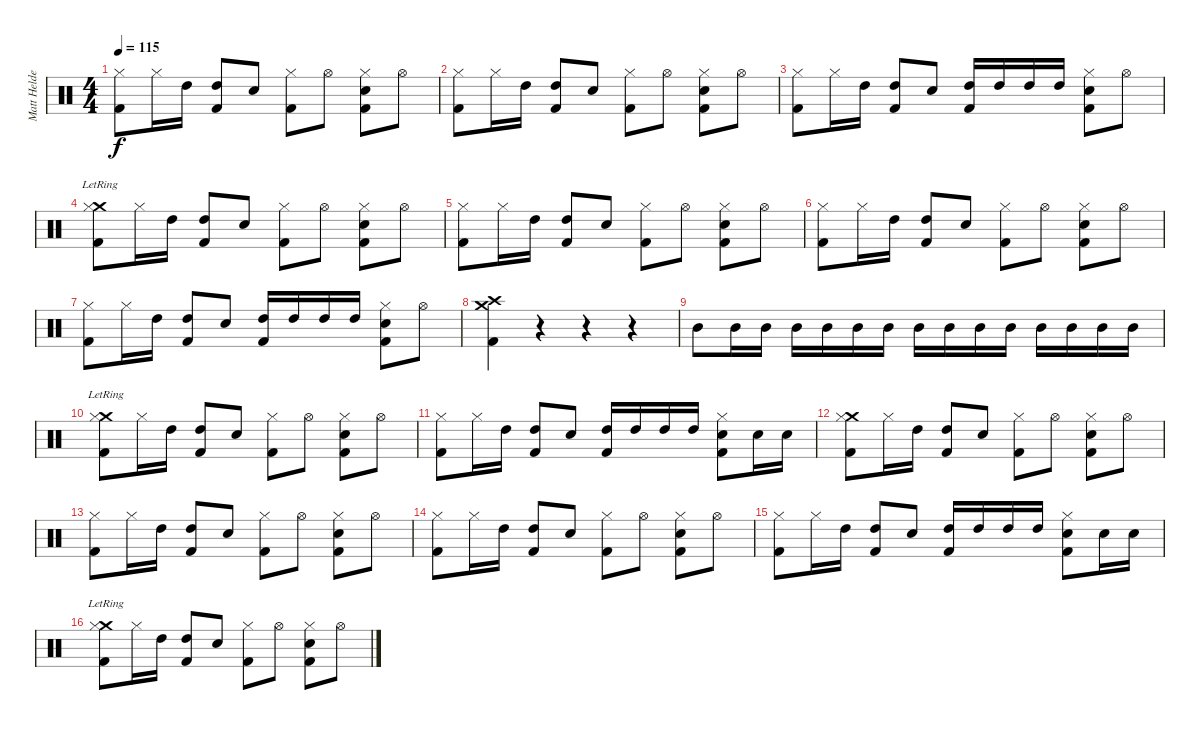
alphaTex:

\track ("Matt Helders (Percussion)" "Matt Helde") {instrument percussion}
\staff {score}
\articulation defaults
\ts (4 4)
\tempo 115
\clef neutral
\ks c
("Hi-Hat (closed)" "Kick (hit) 2").8{dy f} "Hi-Hat (closed)".16 "High Tom (hit)".16 ("High Tom (hit)" "Kick (hit) 2").8 "Snare (hit) 2".8 ("Hi-Hat (closed)" "Kick (hit) 2").8 "Hi-Hat (open)".8 ("Hi-Hat (closed)" "Snare (hit) 2" "Kick (hit) 2").8 "Hi-Hat (open)".8 |
("Hi-Hat (closed)" "Kick (hit) 2").8 "Hi-Hat (closed)".16 "High Tom (hit)".16 ("High Tom (hit)" "Kick (hit) 2").8 "Snare (hit) 2".8 ("Hi-Hat (closed)" "Kick (hit) 2").8 "Hi-Hat (open)".8 ("Hi-Hat (closed)" "Snare (hit) 2" "Kick (hit) 2").8 "Hi-Hat (open)".8 |
("Hi-Hat (closed)" "Kick (hit) 2").8 "Hi-Hat (closed)".16 "High Tom (hit)".16 ("High Tom (hit)" "Kick (hit) 2").8 "Snare (hit) 2".8 ("High Tom (hit)" "Kick (hit) 2").16 "High Tom (hit)".16 "High Tom (hit)".16 "High Tom (hit)".16 ("Hi-Hat (closed)" "Snare (hit) 2" "Kick (hit) 2").8 "Hi-Hat (open)".8 |
("Crash medium (hit)"{lr} "Hi-Hat (closed)" "Kick (hit) 2").8 "Hi-Hat (closed)".16 "High Tom (hit)".16 ("High Tom (hit)" "Kick (hit) 2").8 "Snare (hit) 2".8 ("Hi-Hat (closed)" "Kick (hit) 2").8 "Hi-Hat (open)".8 ("Hi-Hat (closed)" "Snare (hit) 2" "Kick (hit) 2").8 "Hi-Hat (open)".8 |
("Hi-Hat (closed)" "Kick (hit) 2").8 "Hi-Hat (closed)".16 "High Tom (hit)".16 ("High Tom (hit)" "Kick (hit) 2").8 "Snare (hit) 2".8 ("Hi-Hat (closed)" "Kick (hit) 2").8 "Hi-Hat (open)".8 ("Hi-Hat (closed)" "Snare (hit) 2" "Kick (hit) 2").8 "Hi-Hat (open)".8 |
("Hi-Hat (closed)" "Kick (hit) 2").8 "Hi-Hat (closed)".16 "High Tom (hit)".16 ("High Tom (hit)" "Kick (hit) 2").8 "Snare (hit) 2".8 ("Hi-Hat (closed)" "Kick (hit) 2").8 "Hi-Hat (open)".8 ("Hi-Hat (closed)" "Snare (hit) 2" "Kick (hit) 2").8 "Hi-Hat (open)".8 |
("Hi-Hat (closed)" "Kick (hit) 2").8 "Hi-Hat (closed)".16 "High Tom (hit)".16 ("High Tom (hit)" "Kick (hit) 2").8 "Snare (hit) 2".8 ("High Tom (hit)" "Kick (hit) 2").16 "High Tom (hit)".16 "High Tom (hit)".16 "High Tom (hit)".16 ("Hi-Hat (closed)" "Snare (hit) 2" "Kick (hit) 2").8 "Hi-Hat (open)".8 |
("Crash medium (hit)" "Crash high (hit)" "Kick (hit) 2").4{volume 8} r.4 r.4 r.4 |
"Mid Tom (hit)".8{volume 16} "Mid Tom (hit)".16 "Mid Tom (hit)".16 "Mid Tom (hit)".16 "Mid Tom (hit)".16 "Mid Tom (hit)".16 "Mid Tom (hit)".16 "Mid Tom (hit)".16 "Mid Tom (hit)".16 "Mid Tom (hit)".16 "Mid Tom (hit)".16 "Mid Tom (hit)".16 "Mid Tom (hit)".16 "Mid Tom (hit)".16 "Mid Tom (hit)".16 |
("Crash medium (hit)"{lr} "Hi-Hat (closed)" "Kick (hit) 2").8{volume 13} "Hi-Hat (closed)".16 "High Tom (hit)".16 ("High Tom (hit)" "Kick (hit) 2").8 "Snare (hit) 2".8 ("Hi-Hat (closed)" "Kick (hit) 2").8 "Hi-Hat (open)".8 ("Hi-Hat (closed)" "Snare (hit) 2" "Kick (hit) 2").8 "Hi-Hat (open)".8 |
("Hi-Hat (closed)" "Kick (hit) 2").8 "Hi-Hat (closed)".16 "High Tom (hit)".16 ("High Tom (hit)" "Kick (hit) 2").8 "Snare (hit) 2".8 ("High Tom (hit)" "Kick (hit) 2").16 "High Tom (hit)".16 "High Tom (hit)".16 "High Tom (hit)".16 ("Hi-Hat (closed)" "Snare (hit) 2" "Kick (hit) 2").8 "Snare (hit) 2".16 "Snare (hit) 2".16 |
("Crash medium (hit)" "Hi-Hat (closed)" "Kick (hit) 2").8 "Hi-Hat (closed)".16 "High Tom (hit)".16 ("High Tom (hit)" "Kick (hit) 2").8 "Snare (hit) 2".8 ("Hi-Hat (closed)" "Kick (hit) 2").8 "Hi-Hat (open)".8 ("Hi-Hat (closed)" "Snare (hit) 2" "Kick (hit) 2").8 "Hi-Hat (open)".8 |
("Hi-Hat (closed)" "Kick (hit) 2").8 "Hi-Hat (closed)".16 "High Tom (hit)".16 ("High Tom (hit)" "Kick (hit) 2").8 "Snare (hit) 2".8 ("Hi-Hat (closed)" "Kick (hit) 2").8 "Hi-Hat (open)".8 ("Hi-Hat (closed)" "Snare (hit) 2" "Kick (hit) 2").8 "Hi-Hat (open)".8 |
("Hi-Hat (closed)" "Kick (hit) 2").8 "Hi-Hat (closed)".16 "High Tom (hit)".16 ("High Tom (hit)" "Kick (hit) 2").8 "Snare (hit) 2".8 ("Hi-Hat (closed)" "Kick (hit) 2").8 "Hi-Hat (open)".8 ("Hi-Hat (closed)" "Snare (hit) 2" "Kick (hit) 2").8 "Hi-Hat (open)".8 |
("Hi-Hat (closed)" "Kick (hit) 2").8 "Hi-Hat (closed)".16 "High Tom (hit)".16 ("High Tom (hit)" "Kick (hit) 2").8 "Snare (hit) 2".8 ("High Tom (hit)" "Kick (hit) 2").16 "High Tom (hit)".16 "High Tom (hit)".16 "High Tom (hit)".16 ("Hi-Hat (closed)" "Snare (hit) 2" "Kick (hit) 2").8 "Snare (hit) 2".16 "Snare (hit) 2".16 |
("Crash medium (hit)"{lr} "Hi-Hat (closed)" "Kick (hit) 2").8 "Hi-Hat (closed)".16 "High Tom (hit)".16 ("High Tom (hit)" "Kick (hit) 2").8 "Snare (hit) 2".8 ("Hi-Hat (closed)" "Kick (hit) 2").8 "Hi-Hat (open)".8 ("Hi-Hat (closed)" "Snare (hit) 2" "Kick (hit) 2").8 "Hi-Hat (open)".8
